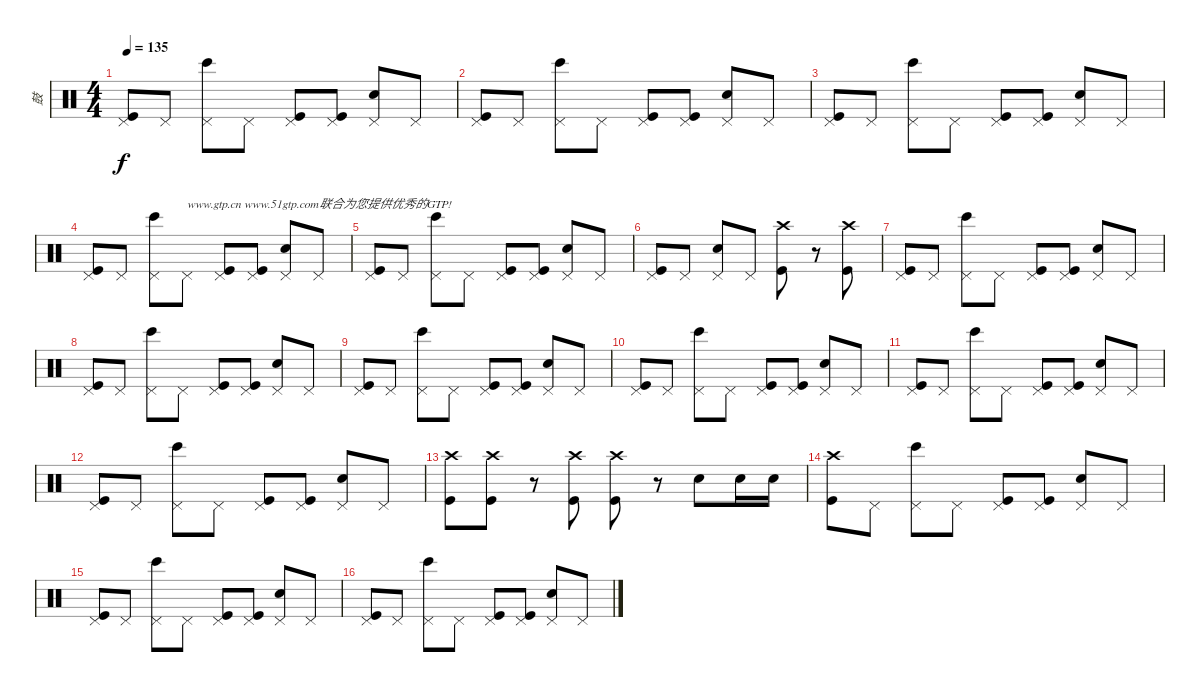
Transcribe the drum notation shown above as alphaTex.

\track ("鼓" "鼓") {instrument percussion}
\staff {score}
\articulation defaults
\ts (4 4)
\tempo 135
\clef neutral
\ks c
("Pedal Hi-Hat (hit)" "Kick (hit)").8{dy f} "Pedal Hi-Hat (hit)".8 ("Pedal Hi-Hat (hit)" "Bongo High (hit)").8 "Pedal Hi-Hat (hit)".8 ("Pedal Hi-Hat (hit)" "Kick (hit)").8 ("Pedal Hi-Hat (hit)" "Kick (hit)").8 ("Pedal Hi-Hat (hit)" "Snare (hit) 2").8 "Pedal Hi-Hat (hit)".8 |
("Pedal Hi-Hat (hit)" "Kick (hit)").8 "Pedal Hi-Hat (hit)".8 ("Pedal Hi-Hat (hit)" "Bongo High (hit)").8 "Pedal Hi-Hat (hit)".8 ("Pedal Hi-Hat (hit)" "Kick (hit)").8 ("Pedal Hi-Hat (hit)" "Kick (hit)").8 ("Pedal Hi-Hat (hit)" "Snare (hit) 2").8 "Pedal Hi-Hat (hit)".8 |
("Pedal Hi-Hat (hit)" "Kick (hit)").8 "Pedal Hi-Hat (hit)".8 ("Pedal Hi-Hat (hit)" "Bongo High (hit)").8 "Pedal Hi-Hat (hit)".8 ("Pedal Hi-Hat (hit)" "Kick (hit)").8 ("Pedal Hi-Hat (hit)" "Kick (hit)").8 ("Pedal Hi-Hat (hit)" "Snare (hit) 2").8 "Pedal Hi-Hat (hit)".8 |
("Pedal Hi-Hat (hit)" "Kick (hit)").8 "Pedal Hi-Hat (hit)".8 ("Pedal Hi-Hat (hit)" "Bongo High (hit)").8 "Pedal Hi-Hat (hit)".8{txt "www.gtp.cn www.51gtp.com联合为您提供优秀的GTP!"} ("Pedal Hi-Hat (hit)" "Kick (hit)").8 ("Pedal Hi-Hat (hit)" "Kick (hit)").8 ("Pedal Hi-Hat (hit)" "Snare (hit) 2").8 "Pedal Hi-Hat (hit)".8 |
("Pedal Hi-Hat (hit)" "Kick (hit)").8 "Pedal Hi-Hat (hit)".8 ("Pedal Hi-Hat (hit)" "Bongo High (hit)").8 "Pedal Hi-Hat (hit)".8 ("Pedal Hi-Hat (hit)" "Kick (hit)").8 ("Pedal Hi-Hat (hit)" "Kick (hit)").8 ("Pedal Hi-Hat (hit)" "Snare (hit) 2").8 "Pedal Hi-Hat (hit)".8 |
("Pedal Hi-Hat (hit)" "Kick (hit)").8 "Pedal Hi-Hat (hit)".8 ("Pedal Hi-Hat (hit)" "Snare (hit) 2").8 "Pedal Hi-Hat (hit)".8 ("Crash high (hit)" "Kick (hit)").8 r.8 ("Crash high (hit)" "Kick (hit)").8 |
("Pedal Hi-Hat (hit)" "Kick (hit)").8 "Pedal Hi-Hat (hit)".8 ("Pedal Hi-Hat (hit)" "Bongo High (hit)").8 "Pedal Hi-Hat (hit)".8 ("Pedal Hi-Hat (hit)" "Kick (hit)").8 ("Pedal Hi-Hat (hit)" "Kick (hit)").8 ("Pedal Hi-Hat (hit)" "Snare (hit) 2").8 "Pedal Hi-Hat (hit)".8 |
("Pedal Hi-Hat (hit)" "Kick (hit)").8 "Pedal Hi-Hat (hit)".8 ("Pedal Hi-Hat (hit)" "Bongo High (hit)").8 "Pedal Hi-Hat (hit)".8 ("Pedal Hi-Hat (hit)" "Kick (hit)").8 ("Pedal Hi-Hat (hit)" "Kick (hit)").8 ("Pedal Hi-Hat (hit)" "Snare (hit) 2").8 "Pedal Hi-Hat (hit)".8 |
("Pedal Hi-Hat (hit)" "Kick (hit)").8 "Pedal Hi-Hat (hit)".8 ("Pedal Hi-Hat (hit)" "Bongo High (hit)").8 "Pedal Hi-Hat (hit)".8 ("Pedal Hi-Hat (hit)" "Kick (hit)").8 ("Pedal Hi-Hat (hit)" "Kick (hit)").8 ("Pedal Hi-Hat (hit)" "Snare (hit) 2").8 "Pedal Hi-Hat (hit)".8 |
("Pedal Hi-Hat (hit)" "Kick (hit)").8 "Pedal Hi-Hat (hit)".8 ("Pedal Hi-Hat (hit)" "Bongo High (hit)").8 "Pedal Hi-Hat (hit)".8 ("Pedal Hi-Hat (hit)" "Kick (hit)").8 ("Pedal Hi-Hat (hit)" "Kick (hit)").8 ("Pedal Hi-Hat (hit)" "Snare (hit) 2").8 "Pedal Hi-Hat (hit)".8 |
("Pedal Hi-Hat (hit)" "Kick (hit)").8 "Pedal Hi-Hat (hit)".8 ("Pedal Hi-Hat (hit)" "Bongo High (hit)").8 "Pedal Hi-Hat (hit)".8 ("Pedal Hi-Hat (hit)" "Kick (hit)").8 ("Pedal Hi-Hat (hit)" "Kick (hit)").8 ("Pedal Hi-Hat (hit)" "Snare (hit) 2").8 "Pedal Hi-Hat (hit)".8 |
("Pedal Hi-Hat (hit)" "Kick (hit)").8 "Pedal Hi-Hat (hit)".8 ("Pedal Hi-Hat (hit)" "Bongo High (hit)").8 "Pedal Hi-Hat (hit)".8 ("Pedal Hi-Hat (hit)" "Kick (hit)").8 ("Pedal Hi-Hat (hit)" "Kick (hit)").8 ("Pedal Hi-Hat (hit)" "Snare (hit) 2").8 "Pedal Hi-Hat (hit)".8 |
("Crash high (hit)" "Kick (hit)").8 ("Crash high (hit)" "Kick (hit)").8 r.8 ("Crash high (hit)" "Kick (hit)").8 ("Crash high (hit)" "Kick (hit)").8 r.8 "Snare (hit) 2".8 "Snare (hit) 2".16 "Snare (hit) 2".16 |
("Crash high (hit)" "Kick (hit)").8 "Pedal Hi-Hat (hit)".8 ("Pedal Hi-Hat (hit)" "Bongo High (hit)").8 "Pedal Hi-Hat (hit)".8 ("Pedal Hi-Hat (hit)" "Kick (hit)").8 ("Pedal Hi-Hat (hit)" "Kick (hit)").8 ("Pedal Hi-Hat (hit)" "Snare (hit) 2").8 "Pedal Hi-Hat (hit)".8 |
("Pedal Hi-Hat (hit)" "Kick (hit)").8 "Pedal Hi-Hat (hit)".8 ("Pedal Hi-Hat (hit)" "Bongo High (hit)").8 "Pedal Hi-Hat (hit)".8 ("Pedal Hi-Hat (hit)" "Kick (hit)").8 ("Pedal Hi-Hat (hit)" "Kick (hit)").8 ("Pedal Hi-Hat (hit)" "Snare (hit) 2").8 "Pedal Hi-Hat (hit)".8 |
("Pedal Hi-Hat (hit)" "Kick (hit)").8 "Pedal Hi-Hat (hit)".8 ("Pedal Hi-Hat (hit)" "Bongo High (hit)").8 "Pedal Hi-Hat (hit)".8 ("Pedal Hi-Hat (hit)" "Kick (hit)").8 ("Pedal Hi-Hat (hit)" "Kick (hit)").8 ("Pedal Hi-Hat (hit)" "Snare (hit) 2").8 "Pedal Hi-Hat (hit)".8
